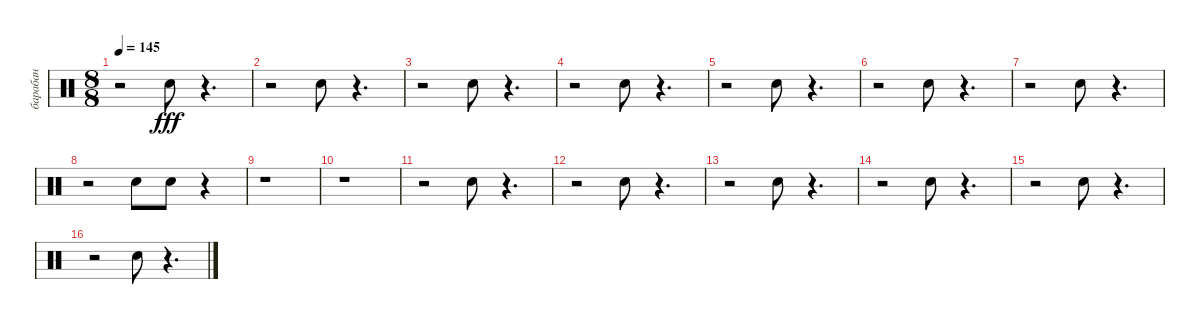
\track ("барабан" "барабан") {instrument percussion}
\staff {score}
\articulation defaults
\ts (8 8)
\tempo 145
\clef neutral
\ks c
r.2{dy fff} "Snare (hit) 2".8 r.4{d} |
r.2 "Snare (hit) 2".8 r.4{d} |
r.2 "Snare (hit) 2".8 r.4{d} |
r.2 "Snare (hit) 2".8 r.4{d} |
r.2 "Snare (hit) 2".8 r.4{d} |
r.2 "Snare (hit) 2".8 r.4{d} |
r.2 "Snare (hit) 2".8 r.4{d} |
r.2 "Snare (hit) 2".8 "Snare (hit) 2".8 r.4 |
r.1 |
r.1 |
r.2 "Snare (hit) 2".8 r.4{d} |
r.2 "Snare (hit) 2".8 r.4{d} |
r.2 "Snare (hit) 2".8 r.4{d} |
r.2 "Snare (hit) 2".8 r.4{d} |
r.2 "Snare (hit) 2".8 r.4{d} |
r.2 "Snare (hit) 2".8 r.4{d}
